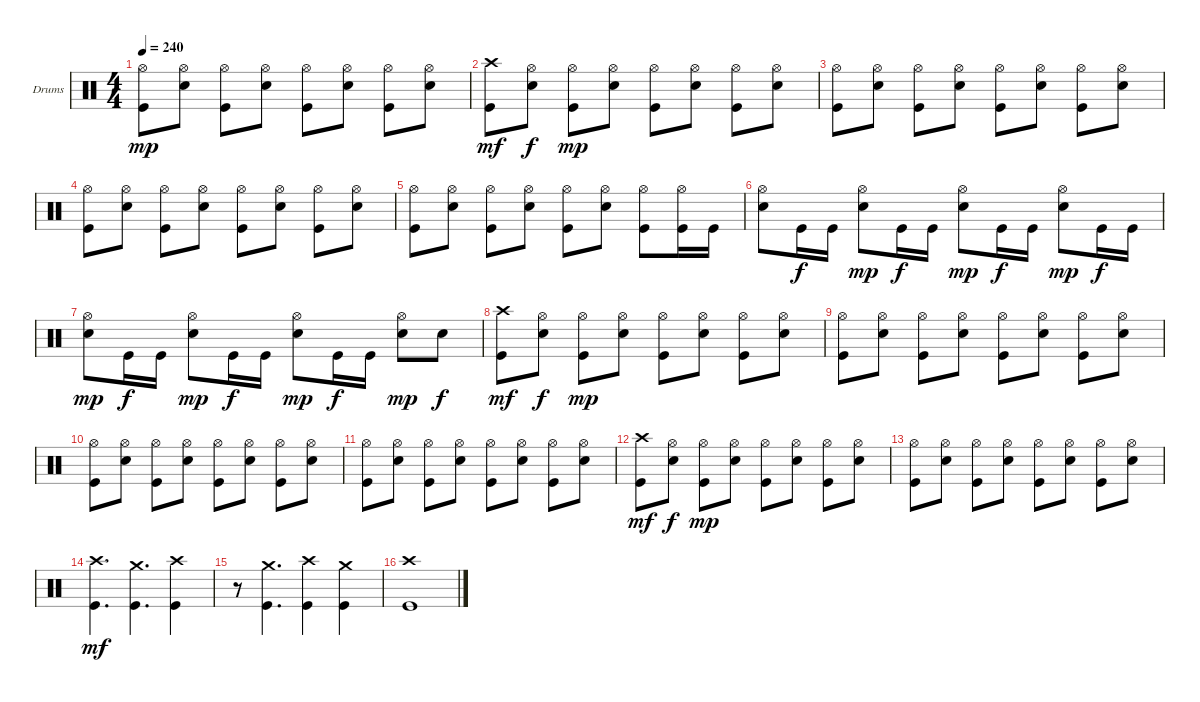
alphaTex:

\bracketExtendMode groupsimilarinstruments
\firstSystemTrackNameOrientation horizontal
\otherSystemsTrackNameOrientation horizontal
\track ("Drumkit" "Drums") {instrument percussion}
\staff {score}
\articulation defaults
\ts (4 4)
\tempo 240
\clef neutral
\ks c
("Hi-Hat (open)" "Kick (hit)").8{dy mp} ("Hi-Hat (open)" "Snare (hit) 2").8 ("Hi-Hat (open)" "Kick (hit)").8 ("Hi-Hat (open)" "Snare (hit) 2").8 ("Hi-Hat (open)" "Kick (hit)").8 ("Hi-Hat (open)" "Snare (hit) 2").8 ("Hi-Hat (open)" "Kick (hit)").8 ("Hi-Hat (open)" "Snare (hit) 2").8 |
("Crash high (hit)" "Kick (hit)").8{dy mf} ("Hi-Hat (open)" "Snare (hit) 2").8{dy f} ("Hi-Hat (open)" "Kick (hit)").8{dy mp} ("Hi-Hat (open)" "Snare (hit) 2").8 ("Hi-Hat (open)" "Kick (hit)").8 ("Hi-Hat (open)" "Snare (hit) 2").8 ("Hi-Hat (open)" "Kick (hit)").8 ("Hi-Hat (open)" "Snare (hit) 2").8 |
("Hi-Hat (open)" "Kick (hit)").8 ("Hi-Hat (open)" "Snare (hit) 2").8 ("Hi-Hat (open)" "Kick (hit)").8 ("Hi-Hat (open)" "Snare (hit) 2").8 ("Hi-Hat (open)" "Kick (hit)").8 ("Hi-Hat (open)" "Snare (hit) 2").8 ("Hi-Hat (open)" "Kick (hit)").8 ("Hi-Hat (open)" "Snare (hit) 2").8 |
("Hi-Hat (open)" "Kick (hit)").8 ("Hi-Hat (open)" "Snare (hit) 2").8 ("Hi-Hat (open)" "Kick (hit)").8 ("Hi-Hat (open)" "Snare (hit) 2").8 ("Hi-Hat (open)" "Kick (hit)").8 ("Hi-Hat (open)" "Snare (hit) 2").8 ("Hi-Hat (open)" "Kick (hit)").8 ("Hi-Hat (open)" "Snare (hit) 2").8 |
("Hi-Hat (open)" "Kick (hit)").8 ("Hi-Hat (open)" "Snare (hit) 2").8 ("Hi-Hat (open)" "Kick (hit)").8 ("Hi-Hat (open)" "Snare (hit) 2").8 ("Hi-Hat (open)" "Kick (hit)").8 ("Hi-Hat (open)" "Snare (hit) 2").8 ("Hi-Hat (open)" "Kick (hit)").8 ("Hi-Hat (open)" "Kick (hit)").16 "Kick (hit)".16 |
("Hi-Hat (open)" "Snare (hit) 2").8 "Kick (hit)".16{dy f} "Kick (hit)".16 ("Hi-Hat (open)" "Snare (hit) 2").8{dy mp} "Kick (hit)".16{dy f} "Kick (hit)".16 ("Hi-Hat (open)" "Snare (hit) 2").8{dy mp} "Kick (hit)".16{dy f} "Kick (hit)".16 ("Hi-Hat (open)" "Snare (hit) 2").8{dy mp} "Kick (hit)".16{dy f} "Kick (hit)".16 |
("Hi-Hat (open)" "Snare (hit) 2").8{dy mp} "Kick (hit)".16{dy f} "Kick (hit)".16 ("Hi-Hat (open)" "Snare (hit) 2").8{dy mp} "Kick (hit)".16{dy f} "Kick (hit)".16 ("Hi-Hat (open)" "Snare (hit) 2").8{dy mp} "Kick (hit)".16{dy f} "Kick (hit)".16 ("Hi-Hat (open)" "Snare (hit) 2").8{dy mp} "Snare (hit) 2".8{dy f} |
("Crash high (hit)" "Kick (hit)").8{dy mf} ("Hi-Hat (open)" "Snare (hit) 2").8{dy f} ("Hi-Hat (open)" "Kick (hit)").8{dy mp} ("Hi-Hat (open)" "Snare (hit) 2").8 ("Hi-Hat (open)" "Kick (hit)").8 ("Hi-Hat (open)" "Snare (hit) 2").8 ("Hi-Hat (open)" "Kick (hit)").8 ("Hi-Hat (open)" "Snare (hit) 2").8 |
("Hi-Hat (open)" "Kick (hit)").8 ("Hi-Hat (open)" "Snare (hit) 2").8 ("Hi-Hat (open)" "Kick (hit)").8 ("Hi-Hat (open)" "Snare (hit) 2").8 ("Hi-Hat (open)" "Kick (hit)").8 ("Hi-Hat (open)" "Snare (hit) 2").8 ("Hi-Hat (open)" "Kick (hit)").8 ("Hi-Hat (open)" "Snare (hit) 2").8 |
("Hi-Hat (open)" "Kick (hit)").8 ("Hi-Hat (open)" "Snare (hit) 2").8 ("Hi-Hat (open)" "Kick (hit)").8 ("Hi-Hat (open)" "Snare (hit) 2").8 ("Hi-Hat (open)" "Kick (hit)").8 ("Hi-Hat (open)" "Snare (hit) 2").8 ("Hi-Hat (open)" "Kick (hit)").8 ("Hi-Hat (open)" "Snare (hit) 2").8 |
("Hi-Hat (open)" "Kick (hit)").8 ("Hi-Hat (open)" "Snare (hit) 2").8 ("Hi-Hat (open)" "Kick (hit)").8 ("Hi-Hat (open)" "Snare (hit) 2").8 ("Hi-Hat (open)" "Kick (hit)").8 ("Hi-Hat (open)" "Snare (hit) 2").8 ("Hi-Hat (open)" "Kick (hit)").8 ("Hi-Hat (open)" "Snare (hit) 2").8 |
("Crash high (hit)" "Kick (hit)").8{dy mf} ("Hi-Hat (open)" "Snare (hit) 2").8{dy f} ("Hi-Hat (open)" "Kick (hit)").8{dy mp} ("Hi-Hat (open)" "Snare (hit) 2").8 ("Hi-Hat (open)" "Kick (hit)").8 ("Hi-Hat (open)" "Snare (hit) 2").8 ("Hi-Hat (open)" "Kick (hit)").8 ("Hi-Hat (open)" "Snare (hit) 2").8 |
("Hi-Hat (open)" "Kick (hit)").8 ("Hi-Hat (open)" "Snare (hit) 2").8 ("Hi-Hat (open)" "Kick (hit)").8 ("Hi-Hat (open)" "Snare (hit) 2").8 ("Hi-Hat (open)" "Kick (hit)").8 ("Hi-Hat (open)" "Snare (hit) 2").8 ("Hi-Hat (open)" "Kick (hit)").8 ("Hi-Hat (open)" "Snare (hit) 2").8 |
("Crash high (hit)" "Kick (hit)").4{d dy mf} ("Crash medium (hit)" "Kick (hit)").4{d} ("Crash high (hit)" "Kick (hit)").4 |
r.8 ("Crash medium (hit)" "Kick (hit)").4{d} ("Crash high (hit)" "Kick (hit)").4 ("Crash medium (hit)" "Kick (hit)").4 |
("Crash high (hit)" "Kick (hit)").1
